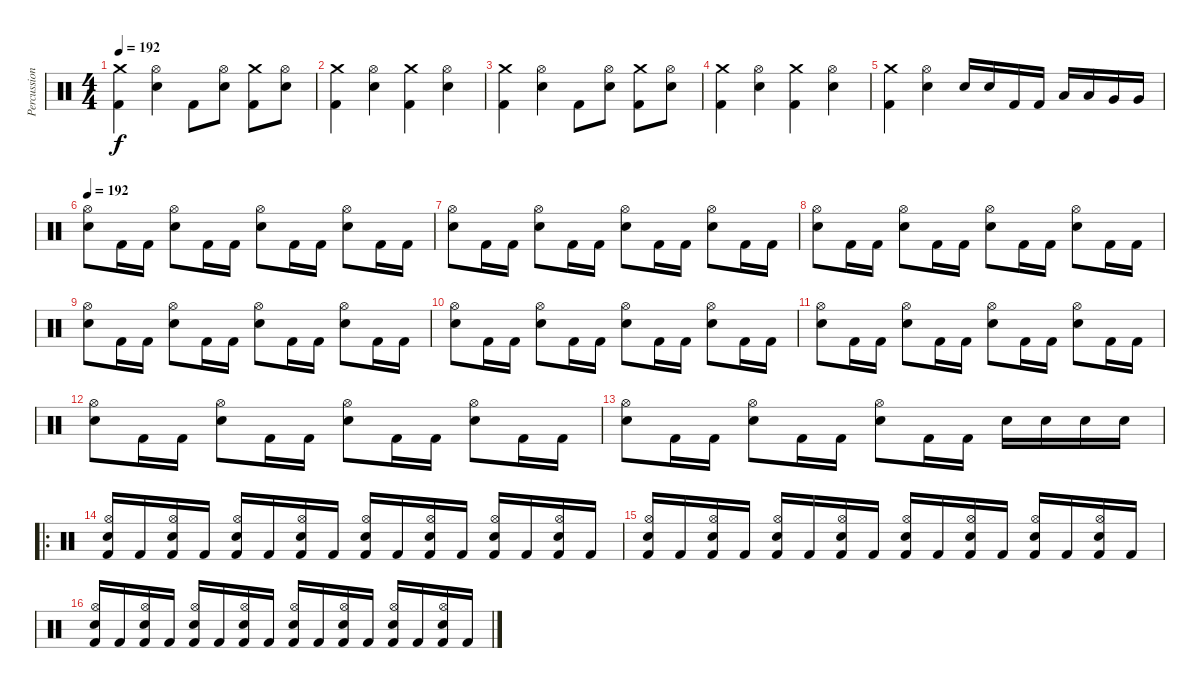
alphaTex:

\track ("Percussion" "Percussion") {instrument percussion}
\staff {score}
\articulation defaults
\ts (4 4)
\tempo 192
\clef neutral
\ks c
("Crash medium (hit)" "Kick (hit) 2").4{dy f} ("Hi-Hat (open)" "Electric Snare (hit)").4 "Kick (hit) 2".8 ("Hi-Hat (open)" "Electric Snare (hit)").8 ("Crash medium (hit)" "Kick (hit) 2").8 ("Hi-Hat (open)" "Electric Snare (hit)").8 |
("Crash medium (hit)" "Kick (hit) 2").4 ("Hi-Hat (open)" "Electric Snare (hit)").4 ("Crash medium (hit)" "Kick (hit) 2").4 ("Hi-Hat (open)" "Electric Snare (hit)").4 |
("Crash medium (hit)" "Kick (hit) 2").4 ("Hi-Hat (open)" "Electric Snare (hit)").4 "Kick (hit) 2".8 ("Hi-Hat (open)" "Electric Snare (hit)").8 ("Crash medium (hit)" "Kick (hit) 2").8 ("Hi-Hat (open)" "Electric Snare (hit)").8 |
("Crash medium (hit)" "Kick (hit) 2").4 ("Hi-Hat (open)" "Electric Snare (hit)").4 ("Crash medium (hit)" "Kick (hit) 2").4 ("Hi-Hat (open)" "Electric Snare (hit)").4 |
("Crash medium (hit)" "Kick (hit) 2").4 ("Hi-Hat (open)" "Electric Snare (hit)").4 "Snare (hit) 2".16 "Snare (hit) 2".16 "Kick (hit) 2".16 "Kick (hit) 2".16 "Low Tom (hit)".16 "Low Tom (hit)".16 "Very Low Tom (hit)".16 "Very Low Tom (hit)".16 |
\tempo 192
("Electric Snare (hit)" "Hi-Hat (open)").8 "Kick (hit) 2".16 "Kick (hit) 2".16 ("Electric Snare (hit)" "Hi-Hat (open)").8 "Kick (hit) 2".16 "Kick (hit) 2".16 ("Electric Snare (hit)" "Hi-Hat (open)").8 "Kick (hit) 2".16 "Kick (hit) 2".16 ("Electric Snare (hit)" "Hi-Hat (open)").8 "Kick (hit) 2".16 "Kick (hit) 2".16 |
("Electric Snare (hit)" "Hi-Hat (open)").8 "Kick (hit) 2".16 "Kick (hit) 2".16 ("Electric Snare (hit)" "Hi-Hat (open)").8 "Kick (hit) 2".16 "Kick (hit) 2".16 ("Electric Snare (hit)" "Hi-Hat (open)").8 "Kick (hit) 2".16 "Kick (hit) 2".16 ("Electric Snare (hit)" "Hi-Hat (open)").8 "Kick (hit) 2".16 "Kick (hit) 2".16 |
("Electric Snare (hit)" "Hi-Hat (open)").8 "Kick (hit) 2".16 "Kick (hit) 2".16 ("Electric Snare (hit)" "Hi-Hat (open)").8 "Kick (hit) 2".16 "Kick (hit) 2".16 ("Electric Snare (hit)" "Hi-Hat (open)").8 "Kick (hit) 2".16 "Kick (hit) 2".16 ("Electric Snare (hit)" "Hi-Hat (open)").8 "Kick (hit) 2".16 "Kick (hit) 2".16 |
("Electric Snare (hit)" "Hi-Hat (open)").8 "Kick (hit) 2".16 "Kick (hit) 2".16 ("Electric Snare (hit)" "Hi-Hat (open)").8 "Kick (hit) 2".16 "Kick (hit) 2".16 ("Electric Snare (hit)" "Hi-Hat (open)").8 "Kick (hit) 2".16 "Kick (hit) 2".16 ("Electric Snare (hit)" "Hi-Hat (open)").8 "Kick (hit) 2".16 "Kick (hit) 2".16 |
("Electric Snare (hit)" "Hi-Hat (open)").8 "Kick (hit) 2".16 "Kick (hit) 2".16 ("Electric Snare (hit)" "Hi-Hat (open)").8 "Kick (hit) 2".16 "Kick (hit) 2".16 ("Electric Snare (hit)" "Hi-Hat (open)").8 "Kick (hit) 2".16 "Kick (hit) 2".16 ("Electric Snare (hit)" "Hi-Hat (open)").8 "Kick (hit) 2".16 "Kick (hit) 2".16 |
("Electric Snare (hit)" "Hi-Hat (open)").8 "Kick (hit) 2".16 "Kick (hit) 2".16 ("Electric Snare (hit)" "Hi-Hat (open)").8 "Kick (hit) 2".16 "Kick (hit) 2".16 ("Electric Snare (hit)" "Hi-Hat (open)").8 "Kick (hit) 2".16 "Kick (hit) 2".16 ("Electric Snare (hit)" "Hi-Hat (open)").8 "Kick (hit) 2".16 "Kick (hit) 2".16 |
("Electric Snare (hit)" "Hi-Hat (open)").8 "Kick (hit) 2".16 "Kick (hit) 2".16 ("Electric Snare (hit)" "Hi-Hat (open)").8 "Kick (hit) 2".16 "Kick (hit) 2".16 ("Electric Snare (hit)" "Hi-Hat (open)").8 "Kick (hit) 2".16 "Kick (hit) 2".16 ("Electric Snare (hit)" "Hi-Hat (open)").8 "Kick (hit) 2".16 "Kick (hit) 2".16 |
("Electric Snare (hit)" "Hi-Hat (open)").8 "Kick (hit) 2".16 "Kick (hit) 2".16 ("Electric Snare (hit)" "Hi-Hat (open)").8 "Kick (hit) 2".16 "Kick (hit) 2".16 ("Electric Snare (hit)" "Hi-Hat (open)").8 "Kick (hit) 2".16 "Kick (hit) 2".16 "Electric Snare (hit)".16 "Electric Snare (hit)".16 "Electric Snare (hit)".16 "Electric Snare (hit)".16 |
\ro
("Kick (hit) 2" "Electric Snare (hit)" "Hi-Hat (open)").16 "Kick (hit) 2".16 ("Kick (hit) 2" "Electric Snare (hit)" "Hi-Hat (open)").16 "Kick (hit) 2".16 ("Kick (hit) 2" "Electric Snare (hit)" "Hi-Hat (open)").16 "Kick (hit) 2".16 ("Kick (hit) 2" "Electric Snare (hit)" "Hi-Hat (open)").16 "Kick (hit) 2".16 ("Kick (hit) 2" "Electric Snare (hit)" "Hi-Hat (open)").16 "Kick (hit) 2".16 ("Kick (hit) 2" "Electric Snare (hit)" "Hi-Hat (open)").16 "Kick (hit) 2".16 ("Kick (hit) 2" "Electric Snare (hit)" "Hi-Hat (open)").16 "Kick (hit) 2".16 ("Kick (hit) 2" "Electric Snare (hit)" "Hi-Hat (open)").16 "Kick (hit) 2".16 |
("Kick (hit) 2" "Electric Snare (hit)" "Hi-Hat (open)").16 "Kick (hit) 2".16 ("Kick (hit) 2" "Electric Snare (hit)" "Hi-Hat (open)").16 "Kick (hit) 2".16 ("Kick (hit) 2" "Electric Snare (hit)" "Hi-Hat (open)").16 "Kick (hit) 2".16 ("Kick (hit) 2" "Electric Snare (hit)" "Hi-Hat (open)").16 "Kick (hit) 2".16 ("Kick (hit) 2" "Electric Snare (hit)" "Hi-Hat (open)").16 "Kick (hit) 2".16 ("Kick (hit) 2" "Electric Snare (hit)" "Hi-Hat (open)").16 "Kick (hit) 2".16 ("Kick (hit) 2" "Electric Snare (hit)" "Hi-Hat (open)").16 "Kick (hit) 2".16 ("Kick (hit) 2" "Electric Snare (hit)" "Hi-Hat (open)").16 "Kick (hit) 2".16 |
("Kick (hit) 2" "Electric Snare (hit)" "Hi-Hat (open)").16 "Kick (hit) 2".16 ("Kick (hit) 2" "Electric Snare (hit)" "Hi-Hat (open)").16 "Kick (hit) 2".16 ("Kick (hit) 2" "Electric Snare (hit)" "Hi-Hat (open)").16 "Kick (hit) 2".16 ("Kick (hit) 2" "Electric Snare (hit)" "Hi-Hat (open)").16 "Kick (hit) 2".16 ("Kick (hit) 2" "Electric Snare (hit)" "Hi-Hat (open)").16 "Kick (hit) 2".16 ("Kick (hit) 2" "Electric Snare (hit)" "Hi-Hat (open)").16 "Kick (hit) 2".16 ("Kick (hit) 2" "Electric Snare (hit)" "Hi-Hat (open)").16 "Kick (hit) 2".16 ("Kick (hit) 2" "Electric Snare (hit)" "Hi-Hat (open)").16 "Kick (hit) 2".16
